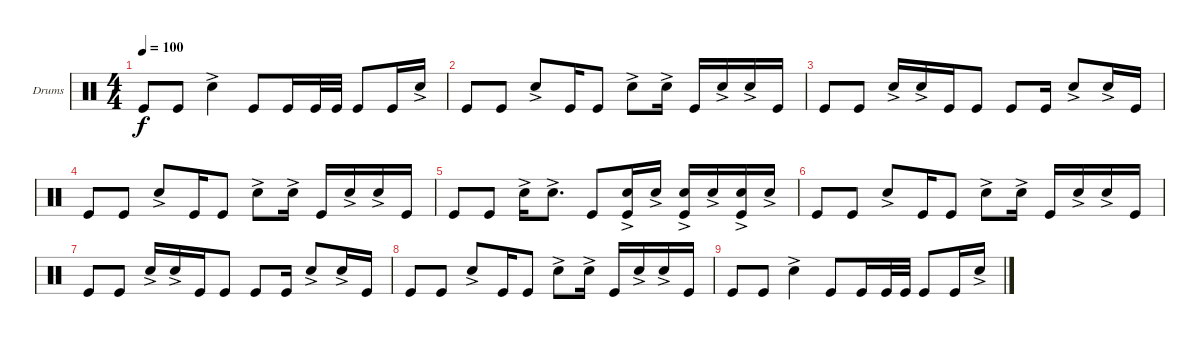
\bracketExtendMode groupsimilarinstruments
\firstSystemTrackNameOrientation horizontal
\otherSystemsTrackNameOrientation horizontal
\track ("Drums rhythm" "Drums") {instrument percussion}
\staff {score}
\articulation defaults
\ts (4 4)
\tempo 100
\clef neutral
\ks c "Kick (hit)".8{dy f} "Kick (hit)".8 "Snare (hit) 2"{ac}.4 "Kick (hit)".8 "Kick (hit)".16 "Kick (hit)".32 "Kick (hit)".32 "Kick (hit)".8 "Kick (hit)".16 "Snare (hit) 2"{ac}.16
|
"Kick (hit)".8 "Kick (hit)".8 "Snare (hit) 2"{ac}.8 "Kick (hit)".16 "Kick (hit)".8 "Snare (hit) 2"{ac}.8 "Snare (hit) 2"{ac}.16 "Kick (hit)".16 "Snare (hit) 2"{ac}.16 "Snare (hit) 2"{ac}.16 "Kick (hit)".16 |
"Kick (hit)".8 "Kick (hit)".8 "Snare (hit) 2"{ac}.16 "Snare (hit) 2"{ac}.16 "Kick (hit)".16 "Kick (hit)".8 "Kick (hit)".8 "Kick (hit)".16 "Snare (hit) 2"{ac}.8 "Snare (hit) 2"{ac}.16 "Kick (hit)".16 |
"Kick (hit)".8 "Kick (hit)".8 "Snare (hit) 2"{ac}.8 "Kick (hit)".16 "Kick (hit)".8 "Snare (hit) 2"{ac}.8 "Snare (hit) 2"{ac}.16 "Kick (hit)".16 "Snare (hit) 2"{ac}.16 "Snare (hit) 2"{ac}.16 "Kick (hit)".16 |
"Kick (hit)".8 "Kick (hit)".8 "Snare (hit) 2"{ac}.16 "Snare (hit) 2"{ac}.8{d} "Kick (hit)".8 ("Kick (hit)" "Snare (hit) 2"{ac}).16 "Snare (hit) 2"{ac}.16 ("Snare (hit) 2"{ac} "Kick (hit)").16 "Snare (hit) 2"{ac}.16 ("Snare (hit) 2"{ac} "Kick (hit)").16 "Snare (hit) 2"{ac}.16 |
"Kick (hit)".8 "Kick (hit)".8 "Snare (hit) 2"{ac}.8 "Kick (hit)".16 "Kick (hit)".8 "Snare (hit) 2"{ac}.8 "Snare (hit) 2"{ac}.16 "Kick (hit)".16 "Snare (hit) 2"{ac}.16 "Snare (hit) 2"{ac}.16 "Kick (hit)".16 |
"Kick (hit)".8 "Kick (hit)".8 "Snare (hit) 2"{ac}.16 "Snare (hit) 2"{ac}.16 "Kick (hit)".16 "Kick (hit)".8 "Kick (hit)".8 "Kick (hit)".16 "Snare (hit) 2"{ac}.8 "Snare (hit) 2"{ac}.16 "Kick (hit)".16 |
"Kick (hit)".8 "Kick (hit)".8 "Snare (hit) 2"{ac}.8 "Kick (hit)".16 "Kick (hit)".8 "Snare (hit) 2"{ac}.8 "Snare (hit) 2"{ac}.16 "Kick (hit)".16 "Snare (hit) 2"{ac}.16 "Snare (hit) 2"{ac}.16 "Kick (hit)".16 |
"Kick (hit)".8 "Kick (hit)".8 "Snare (hit) 2"{ac}.4 "Kick (hit)".8 "Kick (hit)".16 "Kick (hit)".32 "Kick (hit)".32 "Kick (hit)".8 "Kick (hit)".16 "Snare (hit) 2"{ac}.16
